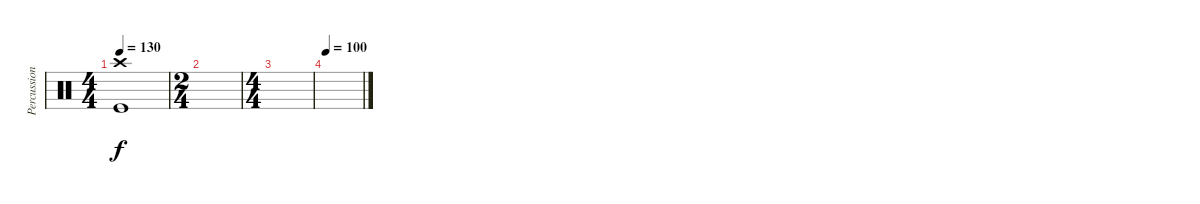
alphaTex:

\track ("Percussions" "Percussion") {instrument percussion}
\staff {score}
\articulation defaults
\ts (4 4)
\tempo 130
\clef neutral
\ks c
("Kick (hit)" "Crash high (hit)").1{dy f} |
\ts (2 4)
|
\ts (4 4)
|
\tempo 100
